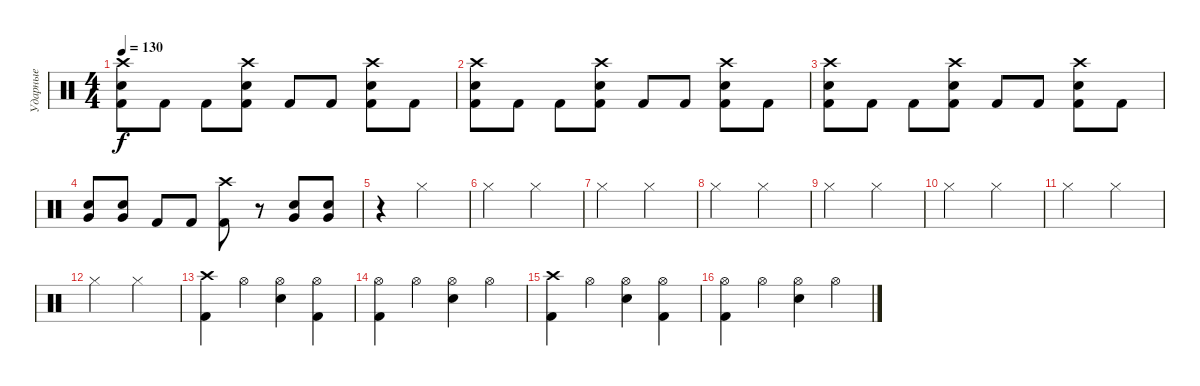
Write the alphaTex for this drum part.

\track ("Ударные" "Ударные") {instrument percussion}
\staff {score}
\articulation defaults
\ts (4 4)
\tempo 130
\clef neutral
\ks c
("Crash high (hit)" "Snare (hit) 2" "Kick (hit) 2").8{dy f} "Kick (hit) 2".8 "Kick (hit) 2".8 ("Crash high (hit)" "Snare (hit) 2" "Kick (hit) 2").8 "Kick (hit) 2".8 "Kick (hit) 2".8 ("Crash high (hit)" "Snare (hit) 2" "Kick (hit) 2").8 "Kick (hit) 2".8 |
("Crash high (hit)" "Snare (hit) 2" "Kick (hit) 2").8 "Kick (hit) 2".8 "Kick (hit) 2".8 ("Crash high (hit)" "Snare (hit) 2" "Kick (hit) 2").8 "Kick (hit) 2".8 "Kick (hit) 2".8 ("Crash high (hit)" "Snare (hit) 2" "Kick (hit) 2").8 "Kick (hit) 2".8 |
("Crash high (hit)" "Snare (hit) 2" "Kick (hit) 2").8 "Kick (hit) 2".8 "Kick (hit) 2".8 ("Crash high (hit)" "Snare (hit) 2" "Kick (hit) 2").8 "Kick (hit) 2".8 "Kick (hit) 2".8 ("Crash high (hit)" "Snare (hit) 2" "Kick (hit) 2").8 "Kick (hit) 2".8 |
("Very Low Tom (hit)" "Snare (hit) 2").8 ("Very Low Tom (hit)" "Snare (hit) 2").8 "Kick (hit) 2".8 "Kick (hit) 2".8 ("Crash high (hit)" "Kick (hit) 2").8 r.8 ("Very Low Tom (hit)" "Snare (hit) 2").8 ("Very Low Tom (hit)" "Snare (hit) 2").8 |
r.4 "Hi-Hat (closed)".2 |
"Hi-Hat (closed)".2 "Hi-Hat (closed)".2 |
"Hi-Hat (closed)".2 "Hi-Hat (closed)".2 |
"Hi-Hat (closed)".2 "Hi-Hat (closed)".2 |
"Hi-Hat (closed)".2 "Hi-Hat (closed)".2 |
"Hi-Hat (closed)".2 "Hi-Hat (closed)".2 |
"Hi-Hat (closed)".2 "Hi-Hat (closed)".2 |
"Hi-Hat (closed)".2 "Hi-Hat (closed)".2 |
("Crash high (hit)" "Kick (hit) 2").4 "Hi-Hat (open)".4 ("Hi-Hat (open)" "Snare (hit) 2").4 ("Hi-Hat (open)" "Kick (hit) 2").4 |
("Hi-Hat (open)" "Kick (hit) 2").4 "Hi-Hat (open)".4 ("Hi-Hat (open)" "Snare (hit) 2").4 "Hi-Hat (open)".4 |
("Crash high (hit)" "Kick (hit) 2").4 "Hi-Hat (open)".4 ("Hi-Hat (open)" "Snare (hit) 2").4 ("Hi-Hat (open)" "Kick (hit) 2").4 |
("Hi-Hat (open)" "Kick (hit) 2").4 "Hi-Hat (open)".4 ("Hi-Hat (open)" "Snare (hit) 2").4 "Hi-Hat (open)".4
